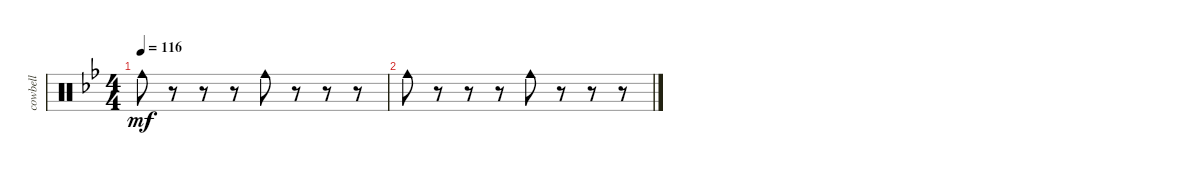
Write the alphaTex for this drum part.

\track ("cowbell" "cowbell") {instrument percussion}
\staff {score}
\articulation defaults
\ts (4 4)
\tempo 116
\clef neutral
\ks bb "Cowbell medium (hit)".8{dy mf}
r.8 r.8 r.8 "Cowbell medium (hit)".8 r.8 r.8 r.8 |
"Cowbell medium (hit)".8 r.8 r.8 r.8 "Cowbell medium (hit)".8 r.8 r.8 r.8
